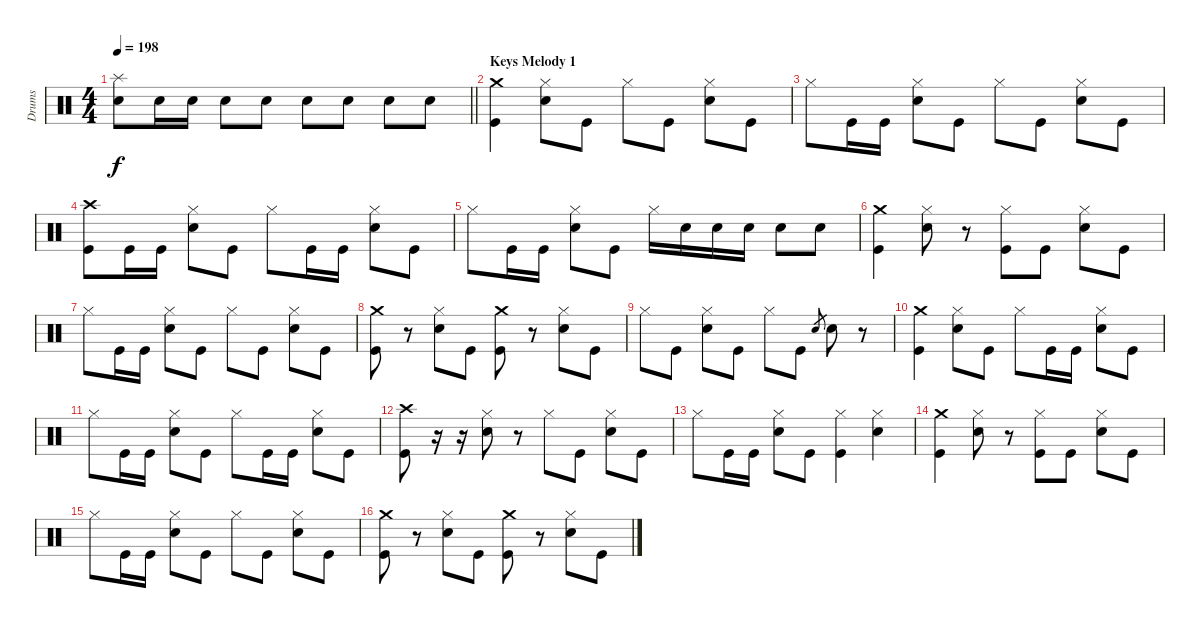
\track ("Drums" "Drums") {instrument percussion}
\staff {score}
\articulation defaults
\ts (4 4)
\tempo 198
\clef neutral
\barLineRight lightlight
\ks c
("Splash (hit)" "Electric Snare (hit)").8{dy f} "Electric Snare (hit)".16 "Electric Snare (hit)".16 "Electric Snare (hit)".8 "Electric Snare (hit)".8 "Electric Snare (hit)".8 "Electric Snare (hit)".8 "Electric Snare (hit)".8 "Electric Snare (hit)".8 |
\section ("" "Keys Melody 1")
("Crash medium (hit)" "Kick (hit)").4 ("Hi-Hat (closed)" "Electric Snare (hit)").8 "Kick (hit)".8 "Hi-Hat (closed)".8 "Kick (hit)".8 ("Hi-Hat (closed)" "Electric Snare (hit)").8 "Kick (hit)".8 |
"Hi-Hat (closed)".8 "Kick (hit)".16 "Kick (hit)".16 ("Hi-Hat (closed)" "Electric Snare (hit)").8 "Kick (hit)".8 "Hi-Hat (closed)".8 "Kick (hit)".8 ("Hi-Hat (closed)" "Electric Snare (hit)").8 "Kick (hit)".8 |
("Crash high (hit)" "Kick (hit)").8 "Kick (hit)".16 "Kick (hit)".16 ("Hi-Hat (closed)" "Electric Snare (hit)").8 "Kick (hit)".8 "Hi-Hat (closed)".8 "Kick (hit)".16 "Kick (hit)".16 ("Hi-Hat (closed)" "Electric Snare (hit)").8 "Kick (hit)".8 |
"Hi-Hat (closed)".8 "Kick (hit)".16 "Kick (hit)".16 ("Hi-Hat (closed)" "Electric Snare (hit)").8 "Kick (hit)".8 "Hi-Hat (closed)".16 "Electric Snare (hit)".16 "Electric Snare (hit)".16 "Electric Snare (hit)".16 "Electric Snare (hit)".8 "Electric Snare (hit)".8 |
("Crash medium (hit)" "Kick (hit)").4 ("Hi-Hat (closed)" "Electric Snare (hit)").8 r.8 ("Hi-Hat (closed)" "Kick (hit)").8 "Kick (hit)".8 ("Hi-Hat (closed)" "Electric Snare (hit)").8 "Kick (hit)".8 |
"Hi-Hat (closed)".8 "Kick (hit)".16 "Kick (hit)".16 ("Hi-Hat (closed)" "Electric Snare (hit)").8 "Kick (hit)".8 "Hi-Hat (closed)".8 "Kick (hit)".8 ("Hi-Hat (closed)" "Electric Snare (hit)").8 "Kick (hit)".8 |
("Crash medium (hit)" "Kick (hit)").8 r.8 ("Hi-Hat (closed)" "Electric Snare (hit)").8 "Kick (hit)".8 ("Crash medium (hit)" "Kick (hit)").8 r.8 ("Hi-Hat (closed)" "Electric Snare (hit)").8 "Kick (hit)".8 |
"Hi-Hat (closed)".8 "Kick (hit)".8 ("Electric Snare (hit)" "Hi-Hat (closed)").8 "Kick (hit)".8 "Hi-Hat (closed)".8 "Kick (hit)".8 "Electric Snare (hit)".8{gr} "Electric Snare (hit)".8 r.8 |
("Crash medium (hit)" "Kick (hit)").4 ("Hi-Hat (closed)" "Electric Snare (hit)").8 "Kick (hit)".8 "Hi-Hat (closed)".8 "Kick (hit)".16 "Kick (hit)".16 ("Hi-Hat (closed)" "Electric Snare (hit)").8 "Kick (hit)".8 |
"Hi-Hat (closed)".8 "Kick (hit)".16 "Kick (hit)".16 ("Hi-Hat (closed)" "Electric Snare (hit)").8 "Kick (hit)".8 "Hi-Hat (closed)".8 "Kick (hit)".16 "Kick (hit)".16 ("Hi-Hat (closed)" "Electric Snare (hit)").8 "Kick (hit)".8 |
("Crash high (hit)" "Kick (hit)").8 r.16 r.16 ("Hi-Hat (closed)" "Electric Snare (hit)").8 r.8 "Hi-Hat (closed)".8 "Kick (hit)".8 ("Hi-Hat (closed)" "Electric Snare (hit)").8 "Kick (hit)".8 |
"Hi-Hat (closed)".8 "Kick (hit)".16 "Kick (hit)".16 ("Hi-Hat (closed)" "Electric Snare (hit)").8 "Kick (hit)".8 ("Hi-Hat (closed)" "Kick (hit)").4 ("Hi-Hat (closed)" "Electric Snare (hit)").4 |
("Crash medium (hit)" "Kick (hit)").4 ("Hi-Hat (closed)" "Electric Snare (hit)").8 r.8 ("Hi-Hat (closed)" "Kick (hit)").8 "Kick (hit)".8 ("Hi-Hat (closed)" "Electric Snare (hit)").8 "Kick (hit)".8 |
"Hi-Hat (closed)".8 "Kick (hit)".16 "Kick (hit)".16 ("Hi-Hat (closed)" "Electric Snare (hit)").8 "Kick (hit)".8 "Hi-Hat (closed)".8 "Kick (hit)".8 ("Hi-Hat (closed)" "Electric Snare (hit)").8 "Kick (hit)".8 |
("Crash medium (hit)" "Kick (hit)").8 r.8 ("Hi-Hat (closed)" "Electric Snare (hit)").8 "Kick (hit)".8 ("Crash medium (hit)" "Kick (hit)").8 r.8 ("Hi-Hat (closed)" "Electric Snare (hit)").8 "Kick (hit)".8
